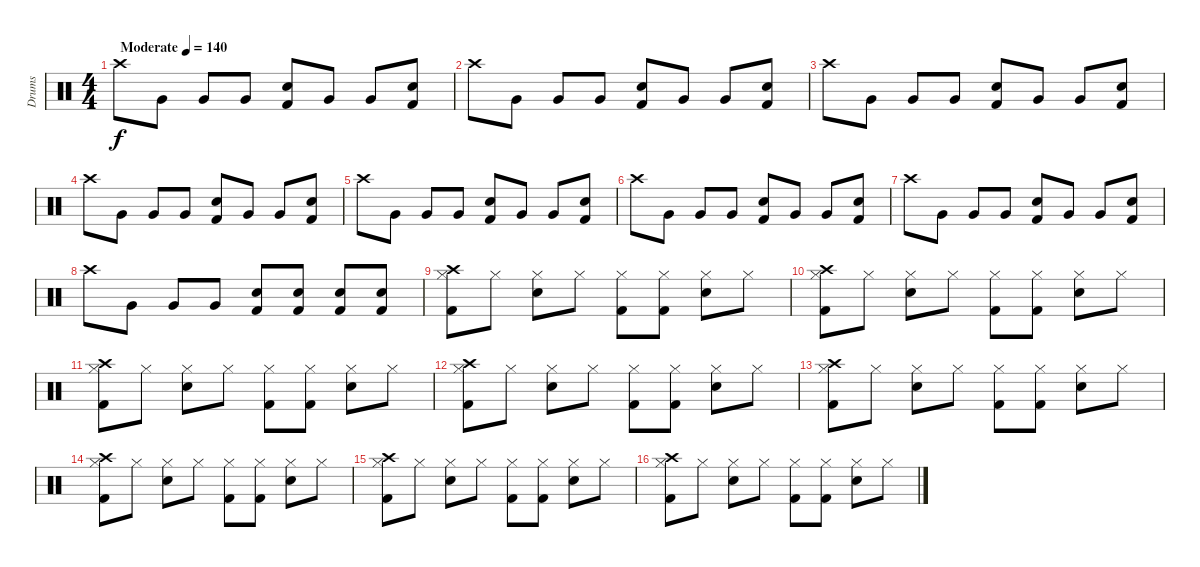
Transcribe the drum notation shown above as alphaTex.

\track ("Drums" "Drums") {instrument percussion}
\staff {score}
\articulation defaults
\ts (4 4)
\tempo (140 "Moderate")
\clef neutral
\ks c "Crash high (hit)".8{dy f} "Very Low Tom (hit)".8 "Very Low Tom (hit)".8 "Very Low Tom (hit)".8
("Kick (hit) 2" "Snare (hit) 2").8 "Very Low Tom (hit)".8 "Very Low Tom (hit)".8 ("Kick (hit) 2" "Snare (hit) 2").8 |
"Crash high (hit)".8 "Very Low Tom (hit)".8 "Very Low Tom (hit)".8 "Very Low Tom (hit)".8 ("Kick (hit) 2" "Snare (hit) 2").8 "Very Low Tom (hit)".8 "Very Low Tom (hit)".8 ("Kick (hit) 2" "Snare (hit) 2").8 |
"Crash high (hit)".8 "Very Low Tom (hit)".8 "Very Low Tom (hit)".8 "Very Low Tom (hit)".8 ("Kick (hit) 2" "Snare (hit) 2").8 "Very Low Tom (hit)".8 "Very Low Tom (hit)".8 ("Kick (hit) 2" "Snare (hit) 2").8 |
"Crash high (hit)".8 "Very Low Tom (hit)".8 "Very Low Tom (hit)".8 "Very Low Tom (hit)".8 ("Kick (hit) 2" "Snare (hit) 2").8 "Very Low Tom (hit)".8 "Very Low Tom (hit)".8 ("Kick (hit) 2" "Snare (hit) 2").8 |
"Crash high (hit)".8 "Very Low Tom (hit)".8 "Very Low Tom (hit)".8 "Very Low Tom (hit)".8 ("Kick (hit) 2" "Snare (hit) 2").8 "Very Low Tom (hit)".8 "Very Low Tom (hit)".8 ("Kick (hit) 2" "Snare (hit) 2").8 |
"Crash high (hit)".8 "Very Low Tom (hit)".8 "Very Low Tom (hit)".8 "Very Low Tom (hit)".8 ("Kick (hit) 2" "Snare (hit) 2").8 "Very Low Tom (hit)".8 "Very Low Tom (hit)".8 ("Kick (hit) 2" "Snare (hit) 2").8 |
"Crash high (hit)".8 "Very Low Tom (hit)".8 "Very Low Tom (hit)".8 "Very Low Tom (hit)".8 ("Kick (hit) 2" "Snare (hit) 2").8 "Very Low Tom (hit)".8 "Very Low Tom (hit)".8 ("Kick (hit) 2" "Snare (hit) 2").8 |
"Crash high (hit)".8 "Very Low Tom (hit)".8 "Very Low Tom (hit)".8 "Very Low Tom (hit)".8 ("Kick (hit) 2" "Snare (hit) 2").8 ("Kick (hit) 2" "Snare (hit) 2").8 ("Kick (hit) 2" "Snare (hit) 2").8 ("Kick (hit) 2" "Snare (hit) 2").8 |
("Hi-Hat (closed)" "Kick (hit) 2" "Crash high (hit)").8 "Hi-Hat (closed)".8 ("Hi-Hat (closed)" "Snare (hit) 2").8 "Hi-Hat (closed)".8 ("Hi-Hat (closed)" "Kick (hit) 2").8 ("Hi-Hat (closed)" "Kick (hit) 2").8 ("Hi-Hat (closed)" "Snare (hit) 2").8 "Hi-Hat (closed)".8 |
("Hi-Hat (closed)" "Kick (hit) 2" "Crash high (hit)").8 "Hi-Hat (closed)".8 ("Hi-Hat (closed)" "Snare (hit) 2").8 "Hi-Hat (closed)".8 ("Hi-Hat (closed)" "Kick (hit) 2").8 ("Hi-Hat (closed)" "Kick (hit) 2").8 ("Hi-Hat (closed)" "Snare (hit) 2").8 "Hi-Hat (closed)".8 |
("Hi-Hat (closed)" "Kick (hit) 2" "Crash high (hit)").8 "Hi-Hat (closed)".8 ("Hi-Hat (closed)" "Snare (hit) 2").8 "Hi-Hat (closed)".8 ("Hi-Hat (closed)" "Kick (hit) 2").8 ("Hi-Hat (closed)" "Kick (hit) 2").8 ("Hi-Hat (closed)" "Snare (hit) 2").8 "Hi-Hat (closed)".8 |
("Hi-Hat (closed)" "Kick (hit) 2" "Crash high (hit)").8 "Hi-Hat (closed)".8 ("Hi-Hat (closed)" "Snare (hit) 2").8 "Hi-Hat (closed)".8 ("Hi-Hat (closed)" "Kick (hit) 2").8 ("Hi-Hat (closed)" "Kick (hit) 2").8 ("Hi-Hat (closed)" "Snare (hit) 2").8 "Hi-Hat (closed)".8 |
("Hi-Hat (closed)" "Kick (hit) 2" "Crash high (hit)").8 "Hi-Hat (closed)".8 ("Hi-Hat (closed)" "Snare (hit) 2").8 "Hi-Hat (closed)".8 ("Hi-Hat (closed)" "Kick (hit) 2").8 ("Hi-Hat (closed)" "Kick (hit) 2").8 ("Hi-Hat (closed)" "Snare (hit) 2").8 "Hi-Hat (closed)".8 |
("Hi-Hat (closed)" "Kick (hit) 2" "Crash high (hit)").8 "Hi-Hat (closed)".8 ("Hi-Hat (closed)" "Snare (hit) 2").8 "Hi-Hat (closed)".8 ("Hi-Hat (closed)" "Kick (hit) 2").8 ("Hi-Hat (closed)" "Kick (hit) 2").8 ("Hi-Hat (closed)" "Snare (hit) 2").8 "Hi-Hat (closed)".8 |
("Hi-Hat (closed)" "Kick (hit) 2" "Crash high (hit)").8 "Hi-Hat (closed)".8 ("Hi-Hat (closed)" "Snare (hit) 2").8 "Hi-Hat (closed)".8 ("Hi-Hat (closed)" "Kick (hit) 2").8 ("Hi-Hat (closed)" "Kick (hit) 2").8 ("Hi-Hat (closed)" "Snare (hit) 2").8 "Hi-Hat (closed)".8 |
("Hi-Hat (closed)" "Kick (hit) 2" "Crash high (hit)").8 "Hi-Hat (closed)".8 ("Hi-Hat (closed)" "Snare (hit) 2").8 "Hi-Hat (closed)".8 ("Hi-Hat (closed)" "Kick (hit) 2").8 ("Hi-Hat (closed)" "Kick (hit) 2").8 ("Hi-Hat (closed)" "Snare (hit) 2").8 "Hi-Hat (closed)".8
